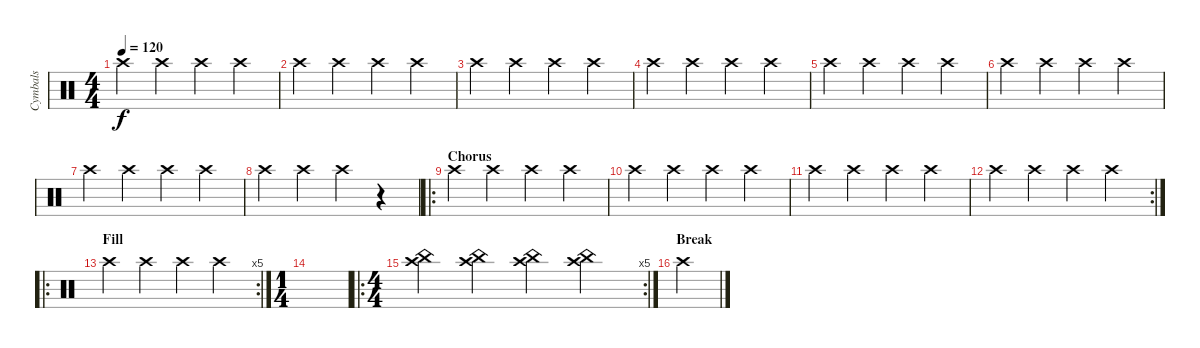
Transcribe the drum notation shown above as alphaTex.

\track ("Cymbals" "Cymbals") {instrument percussion}
\staff {score}
\articulation defaults
\ts (4 4)
\tempo 120
\clef neutral
\ks c "Crash high (hit)".4{dy f} "Crash high (hit)".4 "Crash high (hit)".4 "Crash high (hit)".4
|
"Crash high (hit)".4 "Crash high (hit)".4 "Crash high (hit)".4 "Crash high (hit)".4 |
"Crash high (hit)".4 "Crash high (hit)".4 "Crash high (hit)".4 "Crash high (hit)".4 |
"Crash high (hit)".4 "Crash high (hit)".4 "Crash high (hit)".4 "Crash high (hit)".4 |
"Crash high (hit)".4 "Crash high (hit)".4 "Crash high (hit)".4 "Crash high (hit)".4 |
"Crash high (hit)".4 "Crash high (hit)".4 "Crash high (hit)".4 "Crash high (hit)".4 |
"Crash high (hit)".4 "Crash high (hit)".4 "Crash high (hit)".4 "Crash high (hit)".4 |
"Crash high (hit)".4 "Crash high (hit)".4 "Crash high (hit)".4 r.4 |
\ro
\section ("" "Chorus")
"Crash high (hit)".4 "Crash high (hit)".4 "Crash high (hit)".4 "Crash high (hit)".4 |
"Crash high (hit)".4 "Crash high (hit)".4 "Crash high (hit)".4 "Crash high (hit)".4 |
"Crash high (hit)".4 "Crash high (hit)".4 "Crash high (hit)".4 "Crash high (hit)".4 |
\rc 2 "Crash high (hit)".4 "Crash high (hit)".4 "Crash high (hit)".4 "Crash high (hit)".4
|
\ro
\rc 5
\section ("" "Fill")
"Crash high (hit)".4 "Crash high (hit)".4 "Crash high (hit)".4 "Crash high (hit)".4 |
\ts (1 4)
|
\ro
\rc 5
\ts (4 4)
("Crash high (hit)" "China (hit)").4 ("Crash high (hit)" "China (hit)").4 ("Crash high (hit)" "China (hit)").4 ("Crash high (hit)" "China (hit)").4 |
\section ("" "Break")
"Crash high (hit)".4
